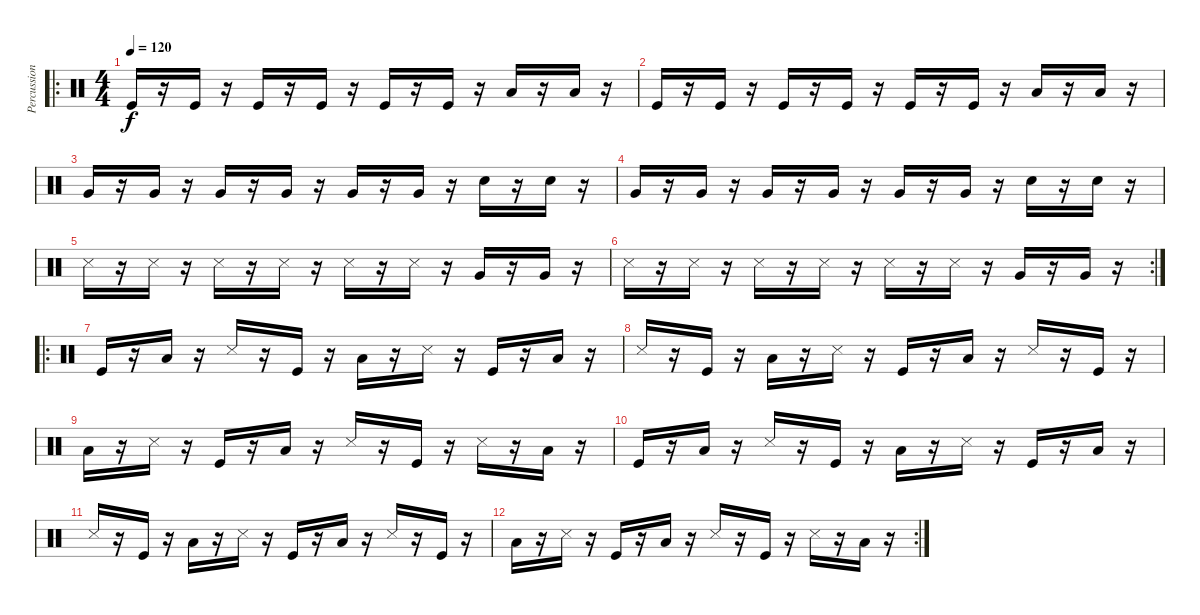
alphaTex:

\track ("Percussion" "Percussion") {instrument percussion}
\staff {score}
\articulation defaults
\ro
\ts (4 4)
\tempo 120
\clef neutral
\ks c "Kick (hit)".16{dy f}
r.16 "Kick (hit)".16 r.16 "Kick (hit)".16 r.16 "Kick (hit)".16 r.16 "Kick (hit)".16 r.16 "Kick (hit)".16 r.16 "Low Floor Tom (hit)".16 r.16 "Low Floor Tom (hit)".16 r.16 |
"Kick (hit)".16 r.16 "Kick (hit)".16 r.16 "Kick (hit)".16 r.16 "Kick (hit)".16 r.16 "Kick (hit)".16 r.16 "Kick (hit)".16 r.16 "Low Floor Tom (hit)".16 r.16 "Low Floor Tom (hit)".16 r.16 |
"Very Low Tom (hit)".16 r.16 "Very Low Tom (hit)".16 r.16 "Very Low Tom (hit)".16 r.16 "Very Low Tom (hit)".16 r.16 "Very Low Tom (hit)".16 r.16 "Very Low Tom (hit)".16 r.16 "Electric Snare (hit)".16 r.16 "Electric Snare (hit)".16 r.16 |
"Very Low Tom (hit)".16 r.16 "Very Low Tom (hit)".16 r.16 "Very Low Tom (hit)".16 r.16 "Very Low Tom (hit)".16 r.16 "Very Low Tom (hit)".16 r.16 "Very Low Tom (hit)".16 r.16 "Electric Snare (hit)".16 r.16 "Electric Snare (hit)".16 r.16 |
"Snare (side stick) 3".16 r.16 "Snare (side stick) 3".16 r.16 "Snare (side stick) 3".16 r.16 "Snare (side stick) 3".16 r.16 "Snare (side stick) 3".16 r.16 "Snare (side stick) 3".16 r.16 "Very Low Tom (hit)".16 r.16 "Very Low Tom (hit)".16 r.16 |
\rc 2 "Snare (side stick) 3".16
r.16 "Snare (side stick) 3".16 r.16 "Snare (side stick) 3".16 r.16 "Snare (side stick) 3".16 r.16 "Snare (side stick) 3".16 r.16 "Snare (side stick) 3".16 r.16 "Very Low Tom (hit)".16 r.16 "Very Low Tom (hit)".16 r.16 |
\ro "Kick (hit)".16
r.16 "Low Floor Tom (hit)".16 r.16 "Snare (side stick) 3".16 r.16 "Kick (hit)".16 r.16 "Low Floor Tom (hit)".16 r.16 "Snare (side stick) 3".16 r.16 "Kick (hit)".16 r.16 "Low Floor Tom (hit)".16 r.16 |
"Snare (side stick) 3".16 r.16 "Kick (hit)".16 r.16 "Low Floor Tom (hit)".16 r.16 "Snare (side stick) 3".16 r.16 "Kick (hit)".16 r.16 "Low Floor Tom (hit)".16 r.16 "Snare (side stick) 3".16 r.16 "Kick (hit)".16 r.16 |
"Low Floor Tom (hit)".16 r.16 "Snare (side stick) 3".16 r.16 "Kick (hit)".16 r.16 "Low Floor Tom (hit)".16 r.16 "Snare (side stick) 3".16 r.16 "Kick (hit)".16 r.16 "Snare (side stick) 3".16 r.16 "Low Floor Tom (hit)".16 r.16 |
"Kick (hit)".16 r.16 "Low Floor Tom (hit)".16 r.16 "Snare (side stick) 3".16 r.16 "Kick (hit)".16 r.16 "Low Floor Tom (hit)".16 r.16 "Snare (side stick) 3".16 r.16 "Kick (hit)".16 r.16 "Low Floor Tom (hit)".16 r.16 |
"Snare (side stick) 3".16 r.16 "Kick (hit)".16 r.16 "Low Floor Tom (hit)".16 r.16 "Snare (side stick) 3".16 r.16 "Kick (hit)".16 r.16 "Low Floor Tom (hit)".16 r.16 "Snare (side stick) 3".16 r.16 "Kick (hit)".16 r.16 |
\rc 2 "Low Floor Tom (hit)".16
r.16 "Snare (side stick) 3".16 r.16 "Kick (hit)".16 r.16 "Low Floor Tom (hit)".16 r.16 "Snare (side stick) 3".16 r.16 "Kick (hit)".16 r.16 "Snare (side stick) 3".16 r.16 "Low Floor Tom (hit)".16 r.16
